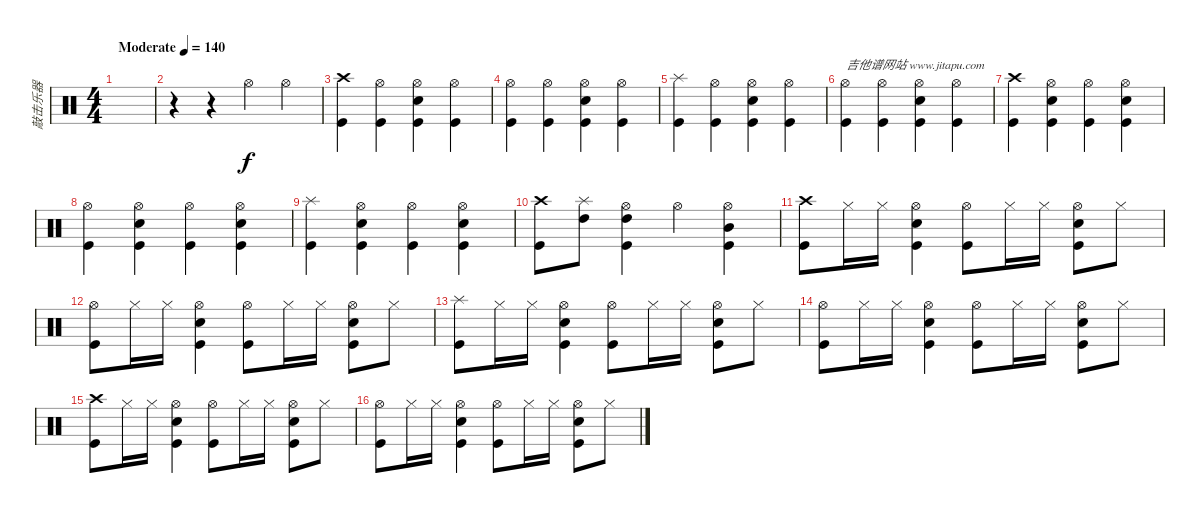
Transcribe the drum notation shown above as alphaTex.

\track ("敲击乐器" "敲击乐器") {instrument percussion}
\staff {score}
\articulation defaults
\ts (4 4)
\tempo (140 "Moderate")
\clef neutral
\ks c
|
r.4 r.4 "Hi-Hat (open)".4 "Hi-Hat (open)".4 |
("Crash high (hit)" "Kick (hit)").4 ("Hi-Hat (open)" "Kick (hit)").4 ("Hi-Hat (open)" "Electric Snare (hit)" "Kick (hit)").4 ("Hi-Hat (open)" "Kick (hit)").4 |
("Hi-Hat (open)" "Kick (hit)").4 ("Hi-Hat (open)" "Kick (hit)").4 ("Hi-Hat (open)" "Electric Snare (hit)" "Kick (hit)").4 ("Hi-Hat (open)" "Kick (hit)").4 |
("Splash (hit)" "Kick (hit)").4 ("Hi-Hat (open)" "Kick (hit)").4 ("Hi-Hat (open)" "Electric Snare (hit)" "Kick (hit)").4 ("Hi-Hat (open)" "Kick (hit)").4 |
("Hi-Hat (open)" "Kick (hit)").4{txt "吉他谱网站 www.jitapu.com"} ("Hi-Hat (open)" "Kick (hit)").4 ("Hi-Hat (open)" "Electric Snare (hit)" "Kick (hit)").4 ("Hi-Hat (open)" "Kick (hit)").4 |
("Crash high (hit)" "Kick (hit)").4 ("Hi-Hat (open)" "Electric Snare (hit)" "Kick (hit)").4 ("Hi-Hat (open)" "Kick (hit)").4 ("Hi-Hat (open)" "Electric Snare (hit)" "Kick (hit)").4 |
("Hi-Hat (open)" "Kick (hit)").4 ("Hi-Hat (open)" "Electric Snare (hit)" "Kick (hit)").4 ("Hi-Hat (open)" "Kick (hit)").4 ("Hi-Hat (open)" "Electric Snare (hit)" "Kick (hit)").4 |
("Splash (hit)" "Kick (hit)").4 ("Hi-Hat (open)" "Electric Snare (hit)" "Kick (hit)").4 ("Hi-Hat (open)" "Kick (hit)").4 ("Hi-Hat (open)" "Electric Snare (hit)" "Kick (hit)").4 |
("Crash high (hit)" "Kick (hit)").8 ("Splash (hit)" "High Tom (hit)").8 ("High Tom (hit)" "Hi-Hat (open)" "Kick (hit)").4 "Hi-Hat (open)".4 ("Hi-Hat (open)" "Mid Tom (hit)" "Kick (hit)").4 |
("Crash high (hit)" "Kick (hit)").8 "Hi-Hat (closed)".16 "Hi-Hat (closed)".16 ("Hi-Hat (open)" "Electric Snare (hit)" "Kick (hit)").4 ("Hi-Hat (open)" "Kick (hit)").8 "Hi-Hat (closed)".16 "Hi-Hat (closed)".16 ("Hi-Hat (open)" "Electric Snare (hit)" "Kick (hit)").8 "Hi-Hat (closed)".8 |
("Hi-Hat (open)" "Kick (hit)").8 "Hi-Hat (closed)".16 "Hi-Hat (closed)".16 ("Hi-Hat (open)" "Electric Snare (hit)" "Kick (hit)").4 ("Hi-Hat (open)" "Kick (hit)").8 "Hi-Hat (closed)".16 "Hi-Hat (closed)".16 ("Hi-Hat (open)" "Electric Snare (hit)" "Kick (hit)").8 "Hi-Hat (closed)".8 |
("Splash (hit)" "Kick (hit)").8 "Hi-Hat (closed)".16 "Hi-Hat (closed)".16 ("Hi-Hat (open)" "Electric Snare (hit)" "Kick (hit)").4 ("Hi-Hat (open)" "Kick (hit)").8 "Hi-Hat (closed)".16 "Hi-Hat (closed)".16 ("Hi-Hat (open)" "Electric Snare (hit)" "Kick (hit)").8 "Hi-Hat (closed)".8 |
("Hi-Hat (open)" "Kick (hit)").8 "Hi-Hat (closed)".16 "Hi-Hat (closed)".16 ("Hi-Hat (open)" "Electric Snare (hit)" "Kick (hit)").4 ("Hi-Hat (open)" "Kick (hit)").8 "Hi-Hat (closed)".16 "Hi-Hat (closed)".16 ("Hi-Hat (open)" "Electric Snare (hit)" "Kick (hit)").8 "Hi-Hat (closed)".8 |
("Crash high (hit)" "Kick (hit)").8 "Hi-Hat (closed)".16 "Hi-Hat (closed)".16 ("Hi-Hat (open)" "Electric Snare (hit)" "Kick (hit)").4 ("Hi-Hat (open)" "Kick (hit)").8 "Hi-Hat (closed)".16 "Hi-Hat (closed)".16 ("Hi-Hat (open)" "Electric Snare (hit)" "Kick (hit)").8 "Hi-Hat (closed)".8 |
("Hi-Hat (open)" "Kick (hit)").8 "Hi-Hat (closed)".16 "Hi-Hat (closed)".16 ("Hi-Hat (open)" "Electric Snare (hit)" "Kick (hit)").4 ("Hi-Hat (open)" "Kick (hit)").8 "Hi-Hat (closed)".16 "Hi-Hat (closed)".16 ("Hi-Hat (open)" "Electric Snare (hit)" "Kick (hit)").8 "Hi-Hat (closed)".8
